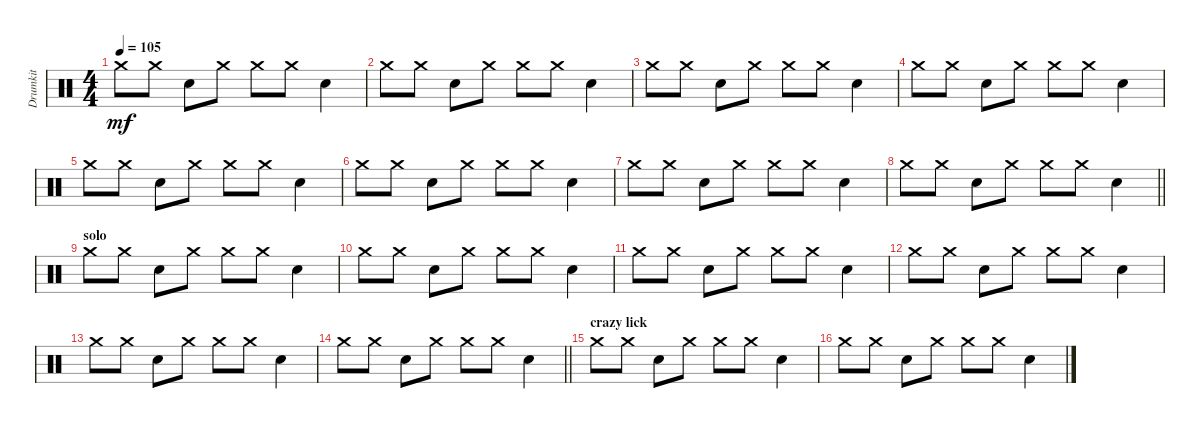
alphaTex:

\track ("Drumkit" "Drumkit") {instrument percussion}
\staff {score}
\articulation defaults
\ts (4 4)
\tempo 105
\clef neutral
\ks c "Crash medium (hit)".8{dy mf} "Crash medium (hit)".8 "Snare (hit) 2".8 "Crash medium (hit)".8 "Crash medium (hit)".8 "Crash medium (hit)".8 "Snare (hit) 2".4
|
"Crash medium (hit)".8 "Crash medium (hit)".8 "Snare (hit) 2".8 "Crash medium (hit)".8 "Crash medium (hit)".8 "Crash medium (hit)".8 "Snare (hit) 2".4 |
"Crash medium (hit)".8 "Crash medium (hit)".8 "Snare (hit) 2".8 "Crash medium (hit)".8 "Crash medium (hit)".8 "Crash medium (hit)".8 "Snare (hit) 2".4 |
"Crash medium (hit)".8 "Crash medium (hit)".8 "Snare (hit) 2".8 "Crash medium (hit)".8 "Crash medium (hit)".8 "Crash medium (hit)".8 "Snare (hit) 2".4 |
"Crash medium (hit)".8 "Crash medium (hit)".8 "Snare (hit) 2".8 "Crash medium (hit)".8 "Crash medium (hit)".8 "Crash medium (hit)".8 "Snare (hit) 2".4 |
"Crash medium (hit)".8 "Crash medium (hit)".8 "Snare (hit) 2".8 "Crash medium (hit)".8 "Crash medium (hit)".8 "Crash medium (hit)".8 "Snare (hit) 2".4 |
"Crash medium (hit)".8 "Crash medium (hit)".8 "Snare (hit) 2".8 "Crash medium (hit)".8 "Crash medium (hit)".8 "Crash medium (hit)".8 "Snare (hit) 2".4 |
\barLineRight lightlight "Crash medium (hit)".8 "Crash medium (hit)".8 "Snare (hit) 2".8 "Crash medium (hit)".8 "Crash medium (hit)".8 "Crash medium (hit)".8 "Snare (hit) 2".4
|
\section ("" "solo")
"Crash medium (hit)".8 "Crash medium (hit)".8 "Snare (hit) 2".8 "Crash medium (hit)".8 "Crash medium (hit)".8 "Crash medium (hit)".8 "Snare (hit) 2".4 |
"Crash medium (hit)".8 "Crash medium (hit)".8 "Snare (hit) 2".8 "Crash medium (hit)".8 "Crash medium (hit)".8 "Crash medium (hit)".8 "Snare (hit) 2".4 |
"Crash medium (hit)".8 "Crash medium (hit)".8 "Snare (hit) 2".8 "Crash medium (hit)".8 "Crash medium (hit)".8 "Crash medium (hit)".8 "Snare (hit) 2".4 |
"Crash medium (hit)".8 "Crash medium (hit)".8 "Snare (hit) 2".8 "Crash medium (hit)".8 "Crash medium (hit)".8 "Crash medium (hit)".8 "Snare (hit) 2".4 |
"Crash medium (hit)".8 "Crash medium (hit)".8 "Snare (hit) 2".8 "Crash medium (hit)".8 "Crash medium (hit)".8 "Crash medium (hit)".8 "Snare (hit) 2".4 |
\barLineRight lightlight "Crash medium (hit)".8 "Crash medium (hit)".8 "Snare (hit) 2".8 "Crash medium (hit)".8 "Crash medium (hit)".8 "Crash medium (hit)".8 "Snare (hit) 2".4
|
\section ("" "crazy lick")
"Crash medium (hit)".8 "Crash medium (hit)".8 "Snare (hit) 2".8 "Crash medium (hit)".8 "Crash medium (hit)".8 "Crash medium (hit)".8 "Snare (hit) 2".4 |
"Crash medium (hit)".8 "Crash medium (hit)".8 "Snare (hit) 2".8 "Crash medium (hit)".8 "Crash medium (hit)".8 "Crash medium (hit)".8 "Snare (hit) 2".4
